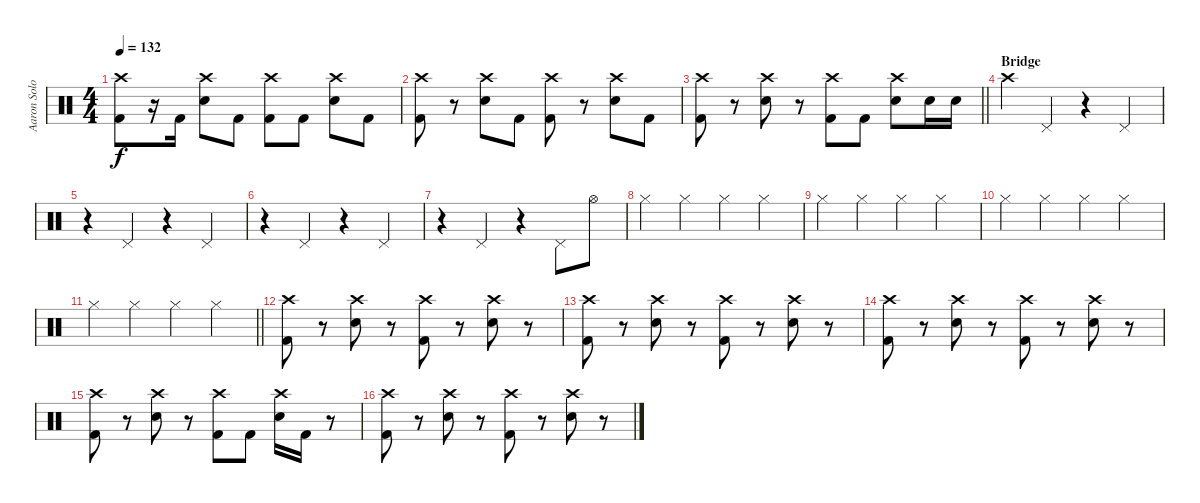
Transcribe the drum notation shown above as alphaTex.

\track ("Aaron Solowoniuk" "Aaron Solo") {instrument percussion}
\staff {score}
\articulation defaults
\ts (4 4)
\tempo 132
\clef neutral
\ks c
("Crash high (hit)" "Kick (hit) 2").8{dy f} r.16 "Kick (hit) 2".16 ("Crash high (hit)" "Electric Snare (hit)").8 "Kick (hit) 2".8 ("Crash high (hit)" "Kick (hit) 2").8 "Kick (hit) 2".8 ("Crash high (hit)" "Electric Snare (hit)").8 "Kick (hit) 2".8 |
("Crash high (hit)" "Kick (hit) 2").8 r.8 ("Crash high (hit)" "Electric Snare (hit)").8 "Kick (hit) 2".8 ("Crash high (hit)" "Kick (hit) 2").8 r.8 ("Crash high (hit)" "Electric Snare (hit)").8 "Kick (hit) 2".8 |
\barLineRight lightlight
("Crash high (hit)" "Kick (hit) 2").8 r.8 ("Crash high (hit)" "Electric Snare (hit)").8 r.8 ("Crash high (hit)" "Kick (hit) 2").8 "Kick (hit) 2".8 ("Crash high (hit)" "Electric Snare (hit)").8 "Electric Snare (hit)".16 "Electric Snare (hit)".16 |
\section ("" "Bridge")
"Crash high (hit)".4 "Pedal Hi-Hat (hit)".4 r.4 "Pedal Hi-Hat (hit)".4 |
r.4 "Pedal Hi-Hat (hit)".4 r.4 "Pedal Hi-Hat (hit)".4 |
r.4 "Pedal Hi-Hat (hit)".4 r.4 "Pedal Hi-Hat (hit)".4 |
r.4 "Pedal Hi-Hat (hit)".4 r.4 "Pedal Hi-Hat (hit)".8 "Hi-Hat (open)".8 |
"Hi-Hat (closed)".4 "Hi-Hat (closed)".4 "Hi-Hat (closed)".4 "Hi-Hat (closed)".4 |
"Hi-Hat (closed)".4 "Hi-Hat (closed)".4 "Hi-Hat (closed)".4 "Hi-Hat (closed)".4 |
"Hi-Hat (closed)".4 "Hi-Hat (closed)".4 "Hi-Hat (closed)".4 "Hi-Hat (closed)".4 |
\barLineRight lightlight "Hi-Hat (closed)".4 "Hi-Hat (closed)".4 "Hi-Hat (closed)".4 "Hi-Hat (closed)".4
|
("Crash high (hit)" "Kick (hit) 2").8 r.8 ("Crash high (hit)" "Electric Snare (hit)").8 r.8 ("Crash high (hit)" "Kick (hit) 2").8 r.8 ("Crash high (hit)" "Electric Snare (hit)").8 r.8 |
("Crash high (hit)" "Kick (hit) 2").8 r.8 ("Crash high (hit)" "Electric Snare (hit)").8 r.8 ("Crash high (hit)" "Kick (hit) 2").8 r.8 ("Crash high (hit)" "Electric Snare (hit)").8 r.8 |
("Crash high (hit)" "Kick (hit) 2").8 r.8 ("Crash high (hit)" "Electric Snare (hit)").8 r.8 ("Crash high (hit)" "Kick (hit) 2").8 r.8 ("Crash high (hit)" "Electric Snare (hit)").8 r.8 |
("Crash high (hit)" "Kick (hit) 2").8 r.8 ("Crash high (hit)" "Electric Snare (hit)").8 r.8 ("Crash high (hit)" "Kick (hit) 2").8 "Kick (hit) 2".8 ("Crash high (hit)" "Electric Snare (hit)").16 "Kick (hit) 2".16 r.8 |
("Crash high (hit)" "Kick (hit) 2").8 r.8 ("Crash high (hit)" "Electric Snare (hit)").8 r.8 ("Crash high (hit)" "Kick (hit) 2").8 r.8 ("Crash high (hit)" "Electric Snare (hit)").8 r.8
